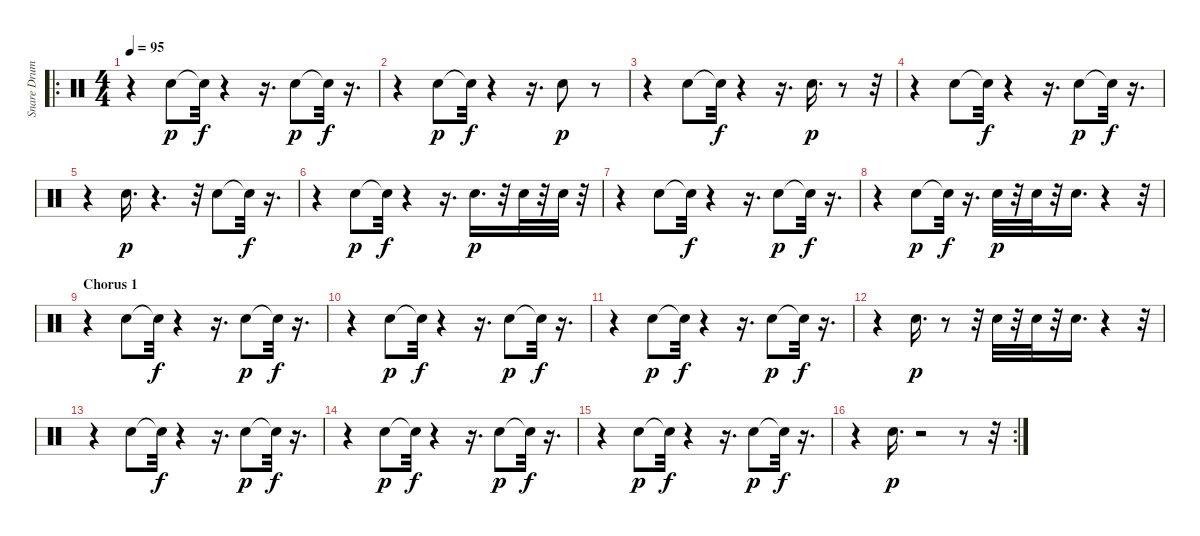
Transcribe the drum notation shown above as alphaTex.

\track ("Snare Drum" "Snare Drum") {instrument percussion}
\staff {score}
\articulation defaults
\ro
\ts (4 4)
\tempo 95
\clef neutral
\ks c
r.4{dy p} "Snare (hit) 2".8 "Snare (hit)"{t}.32{dy f} r.4 r.16{d} "Snare (hit) 2".8{dy p} "Snare (hit)"{t}.32{dy f} r.16{d} |
r.4 "Snare (hit) 2".8{dy p} "Snare (hit)"{t}.32{dy f} r.4 r.16{d} "Snare (hit) 2".8{dy p} r.8 |
r.4 "Snare (hit) 2".8 "Snare (hit)"{t}.32{dy f} r.4 r.16{d} "Snare (hit) 2".16{d dy p} r.8 r.32 |
r.4 "Snare (hit) 2".8 "Snare (hit)"{t}.32{dy f} r.4 r.16{d} "Snare (hit) 2".8{dy p} "Snare (hit)"{t}.32{dy f} r.16{d} |
r.4 "Snare (hit) 2".16{d dy p} r.4{d} r.32 "Snare (hit) 2".8 "Snare (hit)"{t}.32{dy f} r.16{d} |
r.4 "Snare (hit) 2".8{dy p} "Snare (hit)"{t}.32{dy f} r.4 r.16{d} "Snare (hit) 2".16{d dy p} r.32 "Snare (hit) 2".32 r.32 "Snare (hit) 2".32 r.32 |
r.4 "Snare (hit) 2".8 "Snare (hit)"{t}.32{dy f} r.4 r.16{d} "Snare (hit) 2".8{dy p} "Snare (hit)"{t}.32{dy f} r.16{d} |
r.4 "Snare (hit) 2".8{dy p} "Snare (hit)"{t}.32{dy f} r.16{d} "Snare (hit) 2".32{dy p} r.32 "Snare (hit) 2".32 r.32 "Snare (hit) 2".16{d} r.4 r.32 |
\section ("" "Chorus 1")
r.4 "Snare (hit) 2".8 "Snare (hit)"{t}.32{dy f} r.4 r.16{d} "Snare (hit) 2".8{dy p} "Snare (hit)"{t}.32{dy f} r.16{d} |
r.4 "Snare (hit) 2".8{dy p} "Snare (hit)"{t}.32{dy f} r.4 r.16{d} "Snare (hit) 2".8{dy p} "Snare (hit)"{t}.32{dy f} r.16{d} |
r.4 "Snare (hit) 2".8{dy p} "Snare (hit)"{t}.32{dy f} r.4 r.16{d} "Snare (hit) 2".8{dy p} "Snare (hit)"{t}.32{dy f} r.16{d} |
r.4 "Snare (hit) 2".16{d dy p} r.8 r.32 "Snare (hit) 2".32 r.32 "Snare (hit) 2".32 r.32 "Snare (hit) 2".16{d} r.4 r.32 |
r.4 "Snare (hit) 2".8 "Snare (hit)"{t}.32{dy f} r.4 r.16{d} "Snare (hit) 2".8{dy p} "Snare (hit)"{t}.32{dy f} r.16{d} |
r.4 "Snare (hit) 2".8{dy p} "Snare (hit)"{t}.32{dy f} r.4 r.16{d} "Snare (hit) 2".8{dy p} "Snare (hit)"{t}.32{dy f} r.16{d} |
r.4 "Snare (hit) 2".8{dy p} "Snare (hit)"{t}.32{dy f} r.4 r.16{d} "Snare (hit) 2".8{dy p} "Snare (hit)"{t}.32{dy f} r.16{d} |
\rc 2
r.4 "Snare (hit) 2".16{d dy p} r.2 r.8 r.32
